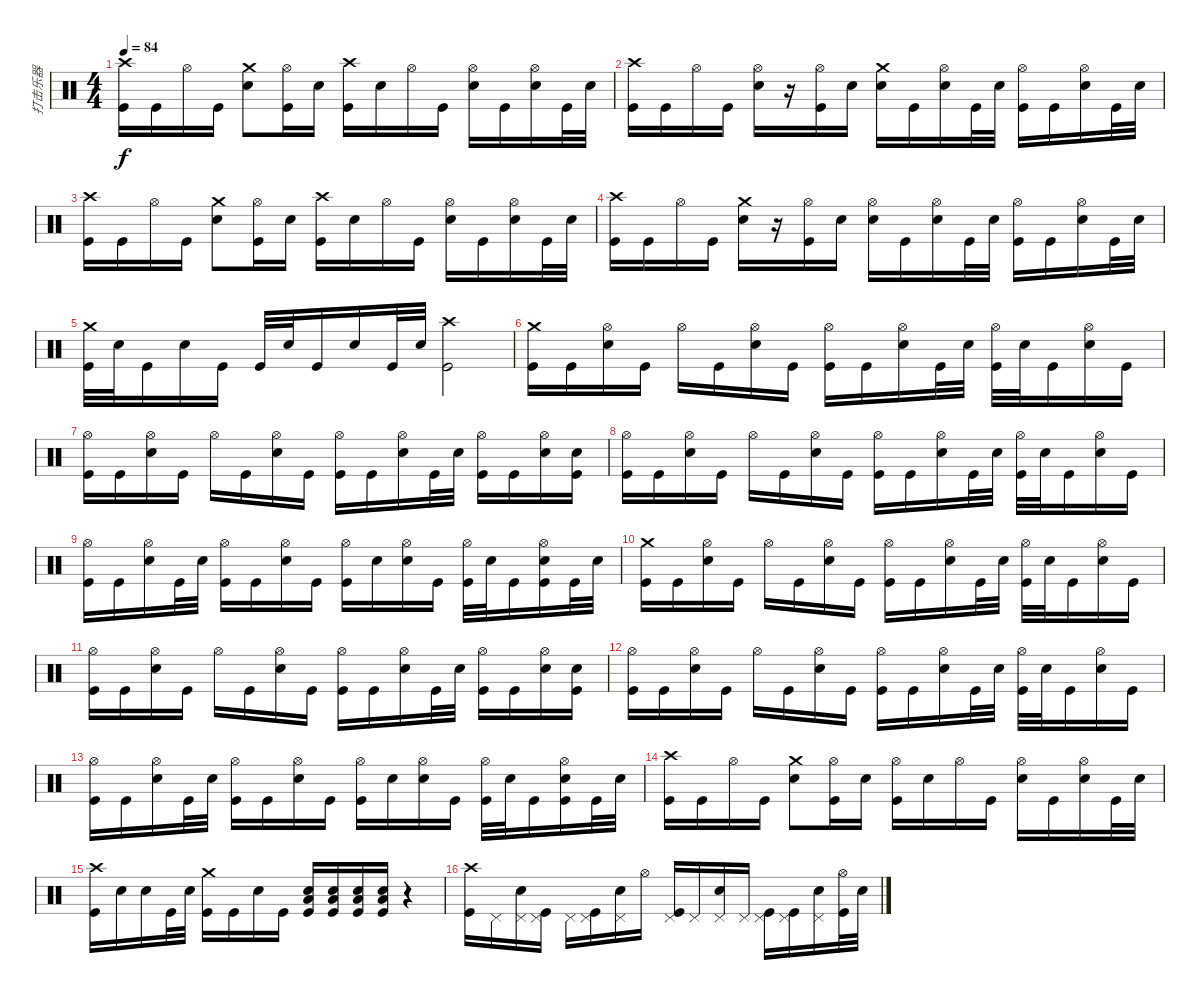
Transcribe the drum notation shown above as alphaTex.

\track ("打击乐器" "打击乐器") {instrument percussion}
\staff {score}
\articulation defaults
\ts (4 4)
\tempo 84
\clef neutral
\ks c
("Crash high (hit)" "Kick (hit)").16{dy f} "Kick (hit)".16 "Hi-Hat (open)".16 "Kick (hit)".16 ("Crash medium (hit)" "Electric Snare (hit)").8 ("Hi-Hat (open)" "Kick (hit)").16 "Electric Snare (hit)".16 ("Crash high (hit)" "Kick (hit)").16 "Electric Snare (hit)".16 "Hi-Hat (open)".16 "Kick (hit)".16 ("Hi-Hat (open)" "Electric Snare (hit)").16 "Kick (hit)".16 ("Hi-Hat (open)" "Electric Snare (hit)").16 "Kick (hit)".32 "Electric Snare (hit)".32 |
("Crash high (hit)" "Kick (hit)").16 "Kick (hit)".16 "Hi-Hat (open)".16 "Kick (hit)".16 ("Hi-Hat (open)" "Electric Snare (hit)").16 r.16 ("Hi-Hat (open)" "Kick (hit)").16 "Electric Snare (hit)".16 ("Crash medium (hit)" "Electric Snare (hit)").16 "Kick (hit)".16 ("Hi-Hat (open)" "Electric Snare (hit)").16 "Kick (hit)".32 "Electric Snare (hit)".32 ("Hi-Hat (open)" "Kick (hit)").16 "Kick (hit)".16 ("Hi-Hat (open)" "Electric Snare (hit)").16 "Kick (hit)".32 "Electric Snare (hit)".32 |
("Crash high (hit)" "Kick (hit)").16 "Kick (hit)".16 "Hi-Hat (open)".16 "Kick (hit)".16 ("Crash medium (hit)" "Electric Snare (hit)").8 ("Hi-Hat (open)" "Kick (hit)").16 "Electric Snare (hit)".16 ("Crash high (hit)" "Kick (hit)").16 "Electric Snare (hit)".16 "Hi-Hat (open)".16 "Kick (hit)".16 ("Hi-Hat (open)" "Electric Snare (hit)").16 "Kick (hit)".16 ("Hi-Hat (open)" "Electric Snare (hit)").16 "Kick (hit)".32 "Electric Snare (hit)".32 |
("Crash high (hit)" "Kick (hit)").16 "Kick (hit)".16 "Hi-Hat (open)".16 "Kick (hit)".16 ("Crash medium (hit)" "Electric Snare (hit)").16 r.16 ("Hi-Hat (open)" "Kick (hit)").16 "Electric Snare (hit)".16 ("Hi-Hat (open)" "Electric Snare (hit)").16 "Kick (hit)".16 ("Hi-Hat (open)" "Electric Snare (hit)").16 "Kick (hit)".32 "Electric Snare (hit)".32 ("Hi-Hat (open)" "Kick (hit)").16 "Kick (hit)".16 ("Hi-Hat (open)" "Electric Snare (hit)").16 "Kick (hit)".32 "Electric Snare (hit)".32 |
("Crash medium (hit)" "Kick (hit)").32 "Electric Snare (hit)".32 "Kick (hit)".16 "Electric Snare (hit)".16 "Kick (hit)".16 "Kick (hit)".32 "Electric Snare (hit)".32 "Kick (hit)".16 "Electric Snare (hit)".16 "Kick (hit)".32 "Electric Snare (hit)".32 ("Crash high (hit)" "Kick (hit)").2 |
("Crash medium (hit)" "Kick (hit)").16 "Kick (hit)".16 ("Hi-Hat (open)" "Electric Snare (hit)").16 "Kick (hit)".16 "Hi-Hat (open)".16 "Kick (hit)".16 ("Hi-Hat (open)" "Electric Snare (hit)").16 "Kick (hit)".16 ("Hi-Hat (open)" "Kick (hit)").16 "Kick (hit)".16 ("Hi-Hat (open)" "Electric Snare (hit)").16 "Kick (hit)".32 "Electric Snare (hit)".32 ("Hi-Hat (open)" "Kick (hit)").32 "Electric Snare (hit)".32 "Kick (hit)".16 ("Hi-Hat (open)" "Electric Snare (hit)").16 "Kick (hit)".16 |
("Hi-Hat (open)" "Kick (hit)").16 "Kick (hit)".16 ("Hi-Hat (open)" "Electric Snare (hit)").16 "Kick (hit)".16 "Hi-Hat (open)".16 "Kick (hit)".16 ("Hi-Hat (open)" "Electric Snare (hit)").16 "Kick (hit)".16 ("Hi-Hat (open)" "Kick (hit)").16 "Kick (hit)".16 ("Hi-Hat (open)" "Electric Snare (hit)").16 "Kick (hit)".32 "Electric Snare (hit)".32 ("Hi-Hat (open)" "Kick (hit)").16 "Kick (hit)".16 ("Hi-Hat (open)" "Electric Snare (hit)").16 ("Electric Snare (hit)" "Kick (hit)").16 |
("Hi-Hat (open)" "Kick (hit)").16 "Kick (hit)".16 ("Hi-Hat (open)" "Electric Snare (hit)").16 "Kick (hit)".16 "Hi-Hat (open)".16 "Kick (hit)".16 ("Hi-Hat (open)" "Electric Snare (hit)").16 "Kick (hit)".16 ("Hi-Hat (open)" "Kick (hit)").16 "Kick (hit)".16 ("Hi-Hat (open)" "Electric Snare (hit)").16 "Kick (hit)".32 "Electric Snare (hit)".32 ("Hi-Hat (open)" "Kick (hit)").32 "Electric Snare (hit)".32 "Kick (hit)".16 ("Hi-Hat (open)" "Electric Snare (hit)").16 "Kick (hit)".16 |
("Hi-Hat (open)" "Kick (hit)").16 "Kick (hit)".16 ("Hi-Hat (open)" "Electric Snare (hit)").16 "Kick (hit)".32 "Electric Snare (hit)".32 ("Hi-Hat (open)" "Kick (hit)").16 "Kick (hit)".16 ("Hi-Hat (open)" "Electric Snare (hit)").16 "Kick (hit)".16 ("Hi-Hat (open)" "Kick (hit)").16 "Electric Snare (hit)".16 ("Hi-Hat (open)" "Electric Snare (hit)").16 "Kick (hit)".16 ("Hi-Hat (open)" "Kick (hit)").32 "Electric Snare (hit)".32 "Kick (hit)".16 ("Hi-Hat (open)" "Electric Snare (hit)" "Kick (hit)").16 "Kick (hit)".32 "Electric Snare (hit)".32 |
("Crash medium (hit)" "Kick (hit)").16 "Kick (hit)".16 ("Hi-Hat (open)" "Electric Snare (hit)").16 "Kick (hit)".16 "Hi-Hat (open)".16 "Kick (hit)".16 ("Hi-Hat (open)" "Electric Snare (hit)").16 "Kick (hit)".16 ("Hi-Hat (open)" "Kick (hit)").16 "Kick (hit)".16 ("Hi-Hat (open)" "Electric Snare (hit)").16 "Kick (hit)".32 "Electric Snare (hit)".32 ("Hi-Hat (open)" "Kick (hit)").32 "Electric Snare (hit)".32 "Kick (hit)".16 ("Hi-Hat (open)" "Electric Snare (hit)").16 "Kick (hit)".16 |
("Hi-Hat (open)" "Kick (hit)").16 "Kick (hit)".16 ("Hi-Hat (open)" "Electric Snare (hit)").16 "Kick (hit)".16 "Hi-Hat (open)".16 "Kick (hit)".16 ("Hi-Hat (open)" "Electric Snare (hit)").16 "Kick (hit)".16 ("Hi-Hat (open)" "Kick (hit)").16 "Kick (hit)".16 ("Hi-Hat (open)" "Electric Snare (hit)").16 "Kick (hit)".32 "Electric Snare (hit)".32 ("Hi-Hat (open)" "Kick (hit)").16 "Kick (hit)".16 ("Hi-Hat (open)" "Electric Snare (hit)").16 ("Electric Snare (hit)" "Kick (hit)").16 |
("Hi-Hat (open)" "Kick (hit)").16 "Kick (hit)".16 ("Hi-Hat (open)" "Electric Snare (hit)").16 "Kick (hit)".16 "Hi-Hat (open)".16 "Kick (hit)".16 ("Hi-Hat (open)" "Electric Snare (hit)").16 "Kick (hit)".16 ("Hi-Hat (open)" "Kick (hit)").16 "Kick (hit)".16 ("Hi-Hat (open)" "Electric Snare (hit)").16 "Kick (hit)".32 "Electric Snare (hit)".32 ("Hi-Hat (open)" "Kick (hit)").32 "Electric Snare (hit)".32 "Kick (hit)".16 ("Hi-Hat (open)" "Electric Snare (hit)").16 "Kick (hit)".16 |
("Hi-Hat (open)" "Kick (hit)").16 "Kick (hit)".16 ("Hi-Hat (open)" "Electric Snare (hit)").16 "Kick (hit)".32 "Electric Snare (hit)".32 ("Hi-Hat (open)" "Kick (hit)").16 "Kick (hit)".16 ("Hi-Hat (open)" "Electric Snare (hit)").16 "Kick (hit)".16 ("Hi-Hat (open)" "Kick (hit)").16 "Electric Snare (hit)".16 ("Hi-Hat (open)" "Electric Snare (hit)").16 "Kick (hit)".16 ("Hi-Hat (open)" "Kick (hit)").32 "Electric Snare (hit)".32 "Kick (hit)".16 ("Hi-Hat (open)" "Electric Snare (hit)" "Kick (hit)").16 "Kick (hit)".32 "Electric Snare (hit)".32 |
("Crash high (hit)" "Kick (hit)").16 "Kick (hit)".16 "Hi-Hat (open)".16 "Kick (hit)".16 ("Crash medium (hit)" "Electric Snare (hit)").8 ("Hi-Hat (open)" "Kick (hit)").16 "Electric Snare (hit)".16 ("Hi-Hat (open)" "Kick (hit)").16 "Electric Snare (hit)".16 "Hi-Hat (open)".16 "Kick (hit)".16 ("Hi-Hat (open)" "Electric Snare (hit)").16 "Kick (hit)".16 ("Hi-Hat (open)" "Electric Snare (hit)").16 "Kick (hit)".32 "Electric Snare (hit)".32 |
("Crash high (hit)" "Kick (hit)").16 "Electric Snare (hit)".16 "Electric Snare (hit)".16 "Kick (hit)".32 "Electric Snare (hit)".32 ("Crash medium (hit)" "Kick (hit)").16 "Kick (hit)".16 "Electric Snare (hit)".16 "Kick (hit)".16 ("Electric Snare (hit)" "Low Floor Tom (hit)" "Kick (hit)").16 ("Electric Snare (hit)" "Low Floor Tom (hit)" "Kick (hit)").16 ("Electric Snare (hit)" "Low Floor Tom (hit)" "Kick (hit)").16 ("Electric Snare (hit)" "Low Floor Tom (hit)" "Kick (hit)").16 r.4 |
("Crash high (hit)" "Kick (hit)").16 "Pedal Hi-Hat (hit)".16 ("Pedal Hi-Hat (hit)" "Electric Snare (hit)").16 ("Pedal Hi-Hat (hit)" "Kick (hit)").16 "Pedal Hi-Hat (hit)".16 ("Pedal Hi-Hat (hit)" "Kick (hit)").16 ("Pedal Hi-Hat (hit)" "Electric Snare (hit)").16 "Hi-Hat (open)".16 ("Pedal Hi-Hat (hit)" "Kick (hit)").16 "Pedal Hi-Hat (hit)".16 ("Pedal Hi-Hat (hit)" "Electric Snare (hit)").16 "Pedal Hi-Hat (hit)".16 ("Pedal Hi-Hat (hit)" "Kick (hit)").16 ("Pedal Hi-Hat (hit)" "Kick (hit)").16 ("Pedal Hi-Hat (hit)" "Electric Snare (hit)").16 ("Hi-Hat (open)" "Kick (hit)").32 "Electric Snare (hit)".32
